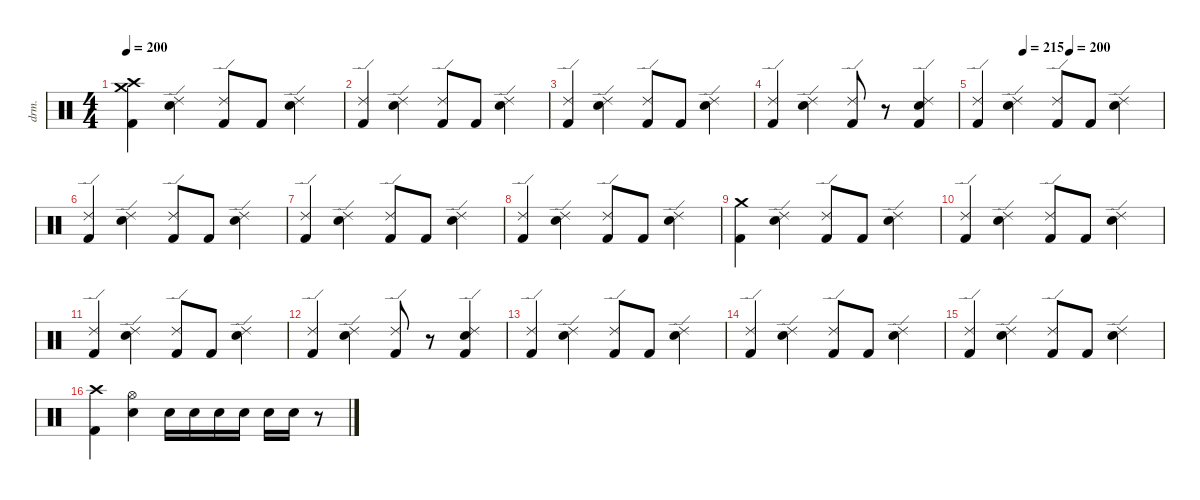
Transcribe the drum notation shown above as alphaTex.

\defaultSystemsLayout 4
\hideDynamics
\bracketExtendMode nobrackets
\track ("Drums" "drm.") {instrument percussion}
\staff {score}
\articulation defaults
\ts (4 4)
\tempo 200
\clef neutral
\ks c
("Crash high (hit)" "Crash medium (hit)" "Kick (hit) 2").4{dy mf} ("Ride (edge) 2" "Snare (hit) 2").4 ("Ride (edge) 2" "Kick (hit) 2").8 "Kick (hit) 2".8{dy f} ("Ride (edge) 2" "Snare (hit) 2").4{dy mf} |
("Ride (edge) 2" "Kick (hit) 2").4 ("Ride (edge) 2" "Snare (hit) 2").4 ("Ride (edge) 2" "Kick (hit) 2").8 "Kick (hit) 2".8{dy f} ("Ride (edge) 2" "Snare (hit) 2").4{dy mf} |
("Ride (edge) 2" "Kick (hit) 2").4{dy f} ("Ride (edge) 2" "Snare (hit) 2").4{dy mf} ("Ride (edge) 2" "Kick (hit) 2").8 "Kick (hit) 2".8{dy f} ("Ride (edge) 2" "Snare (hit) 2").4{dy mf} |
("Ride (edge) 2" "Kick (hit) 2").4 ("Ride (edge) 2" "Snare (hit) 2").4 ("Ride (edge) 2" "Kick (hit) 2").8 r.8 ("Ride (edge) 2" "Snare (hit) 2" "Kick (hit) 2").4 |
\tempo (215 0.25)
\tempo (200 0.5)
("Ride (edge) 2" "Kick (hit) 2").4{dy f} ("Ride (edge) 2" "Snare (hit) 2").4{dy mf} ("Ride (edge) 2" "Kick (hit) 2").8 "Kick (hit) 2".8{dy f} ("Ride (edge) 2" "Snare (hit) 2").4{dy mf} |
("Ride (edge) 2" "Kick (hit) 2").4 ("Ride (edge) 2" "Snare (hit) 2").4 ("Ride (edge) 2" "Kick (hit) 2").8 "Kick (hit) 2".8{dy f} ("Ride (edge) 2" "Snare (hit) 2").4{dy mf} |
("Ride (edge) 2" "Kick (hit) 2").4{dy f} ("Ride (edge) 2" "Snare (hit) 2").4{dy mf} ("Ride (edge) 2" "Kick (hit) 2").8 "Kick (hit) 2".8{dy f} ("Ride (edge) 2" "Snare (hit) 2").4{dy mf} |
("Ride (edge) 2" "Kick (hit) 2").4 ("Ride (edge) 2" "Snare (hit) 2").4 ("Ride (edge) 2" "Kick (hit) 2").8 "Kick (hit) 2".8{dy f} ("Ride (edge) 2" "Snare (hit) 2").4{dy mf} |
("Crash medium (hit)" "Kick (hit) 2").4 ("Ride (edge) 2" "Snare (hit) 2").4{dy f} ("Ride (edge) 2" "Kick (hit) 2").8 "Kick (hit) 2".8 ("Ride (edge) 2" "Snare (hit) 2").4 |
("Ride (edge) 2" "Kick (hit) 2").4 ("Ride (edge) 2" "Snare (hit) 2").4 ("Ride (edge) 2" "Kick (hit) 2").8 "Kick (hit) 2".8 ("Ride (edge) 2" "Snare (hit) 2").4 |
("Ride (edge) 2" "Kick (hit) 2").4 ("Ride (edge) 2" "Snare (hit) 2").4 ("Ride (edge) 2" "Kick (hit) 2").8 "Kick (hit) 2".8 ("Ride (edge) 2" "Snare (hit) 2").4 |
("Ride (edge) 2" "Kick (hit) 2").4 ("Ride (edge) 2" "Snare (hit) 2").4 ("Ride (edge) 2" "Kick (hit) 2").8 r.8 ("Ride (edge) 2" "Snare (hit) 2" "Kick (hit) 2").4 |
("Ride (edge) 2" "Kick (hit) 2").4 ("Ride (edge) 2" "Snare (hit) 2").4 ("Ride (edge) 2" "Kick (hit) 2").8 "Kick (hit) 2".8 ("Ride (edge) 2" "Snare (hit) 2").4 |
("Ride (edge) 2" "Kick (hit) 2").4 ("Ride (edge) 2" "Snare (hit) 2").4 ("Ride (edge) 2" "Kick (hit) 2").8 "Kick (hit) 2".8 ("Ride (edge) 2" "Snare (hit) 2").4 |
("Ride (edge) 2" "Kick (hit) 2").4 ("Ride (edge) 2" "Snare (hit) 2").4 ("Ride (edge) 2" "Kick (hit) 2").8 "Kick (hit) 2".8 ("Ride (edge) 2" "Snare (hit) 2").4 |
("Crash high (hit)" "Kick (hit) 2").4 ("Hi-Hat (open)" "Snare (hit) 2").4 "Snare (hit) 2".16{dy fff} "Snare (hit) 2".16 "Snare (hit) 2".16 "Snare (hit) 2".16 "Snare (hit) 2".16 "Snare (hit) 2".16 r.8
